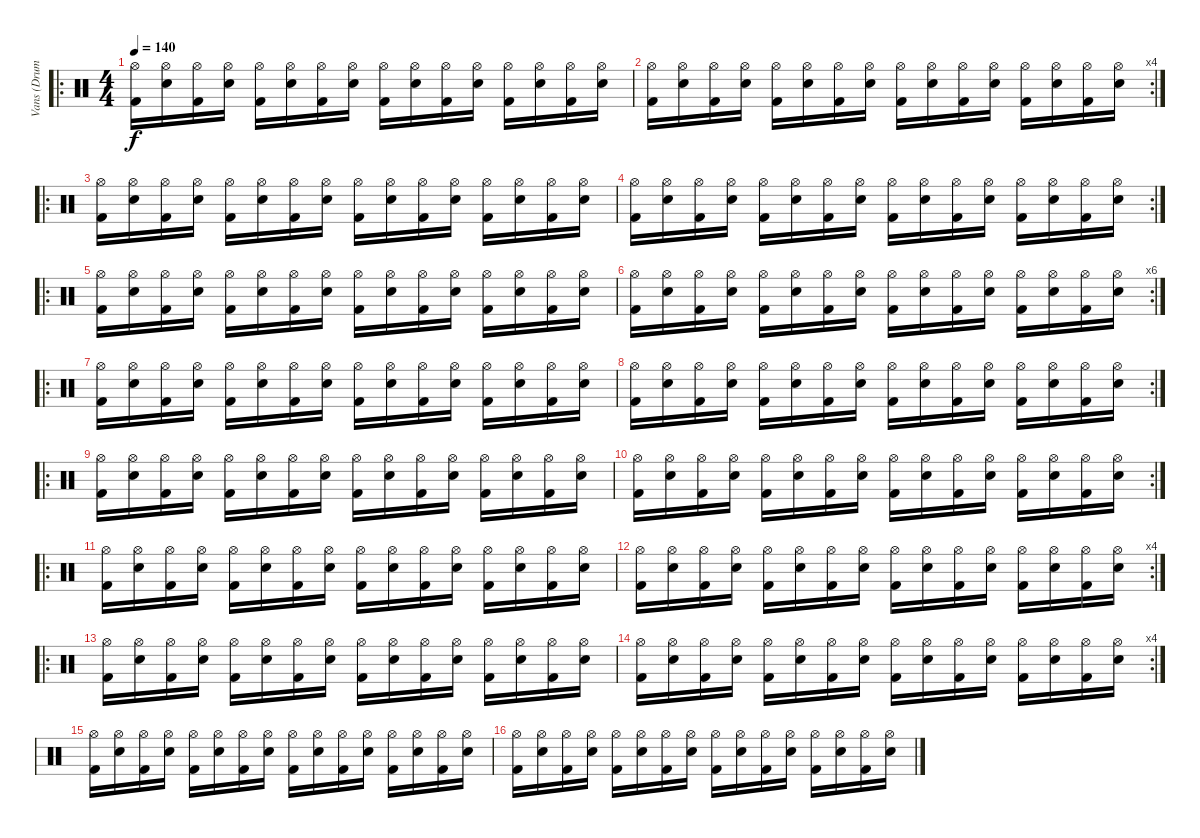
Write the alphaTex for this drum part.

\track ("Vans (Drums)" "Vans (Drum") {instrument percussion}
\staff {score}
\articulation defaults
\ro
\ts (4 4)
\tempo 140
\clef neutral
\ks c
("Hi-Hat (open)" "Kick (hit) 2").16{dy f} ("Hi-Hat (open)" "Snare (hit) 2").16 ("Hi-Hat (open)" "Kick (hit) 2").16 ("Hi-Hat (open)" "Snare (hit) 2").16 ("Hi-Hat (open)" "Kick (hit) 2").16 ("Hi-Hat (open)" "Snare (hit) 2").16 ("Hi-Hat (open)" "Kick (hit) 2").16 ("Hi-Hat (open)" "Snare (hit) 2").16 ("Hi-Hat (open)" "Kick (hit) 2").16 ("Hi-Hat (open)" "Snare (hit) 2").16 ("Hi-Hat (open)" "Kick (hit) 2").16 ("Hi-Hat (open)" "Snare (hit) 2").16 ("Hi-Hat (open)" "Kick (hit) 2").16 ("Hi-Hat (open)" "Snare (hit) 2").16 ("Hi-Hat (open)" "Kick (hit) 2").16 ("Hi-Hat (open)" "Snare (hit) 2").16 |
\rc 4
("Hi-Hat (open)" "Kick (hit) 2").16 ("Hi-Hat (open)" "Snare (hit) 2").16 ("Hi-Hat (open)" "Kick (hit) 2").16 ("Hi-Hat (open)" "Snare (hit) 2").16 ("Hi-Hat (open)" "Kick (hit) 2").16 ("Hi-Hat (open)" "Snare (hit) 2").16 ("Hi-Hat (open)" "Kick (hit) 2").16 ("Hi-Hat (open)" "Snare (hit) 2").16 ("Hi-Hat (open)" "Kick (hit) 2").16 ("Hi-Hat (open)" "Snare (hit) 2").16 ("Hi-Hat (open)" "Kick (hit) 2").16 ("Hi-Hat (open)" "Snare (hit) 2").16 ("Hi-Hat (open)" "Kick (hit) 2").16 ("Hi-Hat (open)" "Snare (hit) 2").16 ("Hi-Hat (open)" "Kick (hit) 2").16 ("Hi-Hat (open)" "Snare (hit) 2").16 |
\ro
("Hi-Hat (open)" "Kick (hit) 2").16 ("Hi-Hat (open)" "Snare (hit) 2").16 ("Hi-Hat (open)" "Kick (hit) 2").16 ("Hi-Hat (open)" "Snare (hit) 2").16 ("Hi-Hat (open)" "Kick (hit) 2").16 ("Hi-Hat (open)" "Snare (hit) 2").16 ("Hi-Hat (open)" "Kick (hit) 2").16 ("Hi-Hat (open)" "Snare (hit) 2").16 ("Hi-Hat (open)" "Kick (hit) 2").16 ("Hi-Hat (open)" "Snare (hit) 2").16 ("Hi-Hat (open)" "Kick (hit) 2").16 ("Hi-Hat (open)" "Snare (hit) 2").16 ("Hi-Hat (open)" "Kick (hit) 2").16 ("Hi-Hat (open)" "Snare (hit) 2").16 ("Hi-Hat (open)" "Kick (hit) 2").16 ("Hi-Hat (open)" "Snare (hit) 2").16 |
\rc 2
("Hi-Hat (open)" "Kick (hit) 2").16 ("Hi-Hat (open)" "Snare (hit) 2").16 ("Hi-Hat (open)" "Kick (hit) 2").16 ("Hi-Hat (open)" "Snare (hit) 2").16 ("Hi-Hat (open)" "Kick (hit) 2").16 ("Hi-Hat (open)" "Snare (hit) 2").16 ("Hi-Hat (open)" "Kick (hit) 2").16 ("Hi-Hat (open)" "Snare (hit) 2").16 ("Hi-Hat (open)" "Kick (hit) 2").16 ("Hi-Hat (open)" "Snare (hit) 2").16 ("Hi-Hat (open)" "Kick (hit) 2").16 ("Hi-Hat (open)" "Snare (hit) 2").16 ("Hi-Hat (open)" "Kick (hit) 2").16 ("Hi-Hat (open)" "Snare (hit) 2").16 ("Hi-Hat (open)" "Kick (hit) 2").16 ("Hi-Hat (open)" "Snare (hit) 2").16 |
\ro
("Hi-Hat (open)" "Kick (hit) 2").16 ("Hi-Hat (open)" "Snare (hit) 2").16 ("Hi-Hat (open)" "Kick (hit) 2").16 ("Hi-Hat (open)" "Snare (hit) 2").16 ("Hi-Hat (open)" "Kick (hit) 2").16 ("Hi-Hat (open)" "Snare (hit) 2").16 ("Hi-Hat (open)" "Kick (hit) 2").16 ("Hi-Hat (open)" "Snare (hit) 2").16 ("Hi-Hat (open)" "Kick (hit) 2").16 ("Hi-Hat (open)" "Snare (hit) 2").16 ("Hi-Hat (open)" "Kick (hit) 2").16 ("Hi-Hat (open)" "Snare (hit) 2").16 ("Hi-Hat (open)" "Kick (hit) 2").16 ("Hi-Hat (open)" "Snare (hit) 2").16 ("Hi-Hat (open)" "Kick (hit) 2").16 ("Hi-Hat (open)" "Snare (hit) 2").16 |
\rc 6
("Hi-Hat (open)" "Kick (hit) 2").16 ("Hi-Hat (open)" "Snare (hit) 2").16 ("Hi-Hat (open)" "Kick (hit) 2").16 ("Hi-Hat (open)" "Snare (hit) 2").16 ("Hi-Hat (open)" "Kick (hit) 2").16 ("Hi-Hat (open)" "Snare (hit) 2").16 ("Hi-Hat (open)" "Kick (hit) 2").16 ("Hi-Hat (open)" "Snare (hit) 2").16 ("Hi-Hat (open)" "Kick (hit) 2").16 ("Hi-Hat (open)" "Snare (hit) 2").16 ("Hi-Hat (open)" "Kick (hit) 2").16 ("Hi-Hat (open)" "Snare (hit) 2").16 ("Hi-Hat (open)" "Kick (hit) 2").16 ("Hi-Hat (open)" "Snare (hit) 2").16 ("Hi-Hat (open)" "Kick (hit) 2").16 ("Hi-Hat (open)" "Snare (hit) 2").16 |
\ro
("Hi-Hat (open)" "Kick (hit) 2").16 ("Hi-Hat (open)" "Snare (hit) 2").16 ("Hi-Hat (open)" "Kick (hit) 2").16 ("Hi-Hat (open)" "Snare (hit) 2").16 ("Hi-Hat (open)" "Kick (hit) 2").16 ("Hi-Hat (open)" "Snare (hit) 2").16 ("Hi-Hat (open)" "Kick (hit) 2").16 ("Hi-Hat (open)" "Snare (hit) 2").16 ("Hi-Hat (open)" "Kick (hit) 2").16 ("Hi-Hat (open)" "Snare (hit) 2").16 ("Hi-Hat (open)" "Kick (hit) 2").16 ("Hi-Hat (open)" "Snare (hit) 2").16 ("Hi-Hat (open)" "Kick (hit) 2").16 ("Hi-Hat (open)" "Snare (hit) 2").16 ("Hi-Hat (open)" "Kick (hit) 2").16 ("Hi-Hat (open)" "Snare (hit) 2").16 |
\rc 2
("Hi-Hat (open)" "Kick (hit) 2").16 ("Hi-Hat (open)" "Snare (hit) 2").16 ("Hi-Hat (open)" "Kick (hit) 2").16 ("Hi-Hat (open)" "Snare (hit) 2").16 ("Hi-Hat (open)" "Kick (hit) 2").16 ("Hi-Hat (open)" "Snare (hit) 2").16 ("Hi-Hat (open)" "Kick (hit) 2").16 ("Hi-Hat (open)" "Snare (hit) 2").16 ("Hi-Hat (open)" "Kick (hit) 2").16 ("Hi-Hat (open)" "Snare (hit) 2").16 ("Hi-Hat (open)" "Kick (hit) 2").16 ("Hi-Hat (open)" "Snare (hit) 2").16 ("Hi-Hat (open)" "Kick (hit) 2").16 ("Hi-Hat (open)" "Snare (hit) 2").16 ("Hi-Hat (open)" "Kick (hit) 2").16 ("Hi-Hat (open)" "Snare (hit) 2").16 |
\ro
("Hi-Hat (open)" "Kick (hit) 2").16 ("Hi-Hat (open)" "Snare (hit) 2").16 ("Hi-Hat (open)" "Kick (hit) 2").16 ("Hi-Hat (open)" "Snare (hit) 2").16 ("Hi-Hat (open)" "Kick (hit) 2").16 ("Hi-Hat (open)" "Snare (hit) 2").16 ("Hi-Hat (open)" "Kick (hit) 2").16 ("Hi-Hat (open)" "Snare (hit) 2").16 ("Hi-Hat (open)" "Kick (hit) 2").16 ("Hi-Hat (open)" "Snare (hit) 2").16 ("Hi-Hat (open)" "Kick (hit) 2").16 ("Hi-Hat (open)" "Snare (hit) 2").16 ("Hi-Hat (open)" "Kick (hit) 2").16 ("Hi-Hat (open)" "Snare (hit) 2").16 ("Hi-Hat (open)" "Kick (hit) 2").16 ("Hi-Hat (open)" "Snare (hit) 2").16 |
\rc 2
("Hi-Hat (open)" "Kick (hit) 2").16 ("Hi-Hat (open)" "Snare (hit) 2").16 ("Hi-Hat (open)" "Kick (hit) 2").16 ("Hi-Hat (open)" "Snare (hit) 2").16 ("Hi-Hat (open)" "Kick (hit) 2").16 ("Hi-Hat (open)" "Snare (hit) 2").16 ("Hi-Hat (open)" "Kick (hit) 2").16 ("Hi-Hat (open)" "Snare (hit) 2").16 ("Hi-Hat (open)" "Kick (hit) 2").16 ("Hi-Hat (open)" "Snare (hit) 2").16 ("Hi-Hat (open)" "Kick (hit) 2").16 ("Hi-Hat (open)" "Snare (hit) 2").16 ("Hi-Hat (open)" "Kick (hit) 2").16 ("Hi-Hat (open)" "Snare (hit) 2").16 ("Hi-Hat (open)" "Kick (hit) 2").16 ("Hi-Hat (open)" "Snare (hit) 2").16 |
\ro
("Hi-Hat (open)" "Kick (hit) 2").16 ("Hi-Hat (open)" "Snare (hit) 2").16 ("Hi-Hat (open)" "Kick (hit) 2").16 ("Hi-Hat (open)" "Snare (hit) 2").16 ("Hi-Hat (open)" "Kick (hit) 2").16 ("Hi-Hat (open)" "Snare (hit) 2").16 ("Hi-Hat (open)" "Kick (hit) 2").16 ("Hi-Hat (open)" "Snare (hit) 2").16 ("Hi-Hat (open)" "Kick (hit) 2").16 ("Hi-Hat (open)" "Snare (hit) 2").16 ("Hi-Hat (open)" "Kick (hit) 2").16 ("Hi-Hat (open)" "Snare (hit) 2").16 ("Hi-Hat (open)" "Kick (hit) 2").16 ("Hi-Hat (open)" "Snare (hit) 2").16 ("Hi-Hat (open)" "Kick (hit) 2").16 ("Hi-Hat (open)" "Snare (hit) 2").16 |
\rc 4
("Hi-Hat (open)" "Kick (hit) 2").16 ("Hi-Hat (open)" "Snare (hit) 2").16 ("Hi-Hat (open)" "Kick (hit) 2").16 ("Hi-Hat (open)" "Snare (hit) 2").16 ("Hi-Hat (open)" "Kick (hit) 2").16 ("Hi-Hat (open)" "Snare (hit) 2").16 ("Hi-Hat (open)" "Kick (hit) 2").16 ("Hi-Hat (open)" "Snare (hit) 2").16 ("Hi-Hat (open)" "Kick (hit) 2").16 ("Hi-Hat (open)" "Snare (hit) 2").16 ("Hi-Hat (open)" "Kick (hit) 2").16 ("Hi-Hat (open)" "Snare (hit) 2").16 ("Hi-Hat (open)" "Kick (hit) 2").16 ("Hi-Hat (open)" "Snare (hit) 2").16 ("Hi-Hat (open)" "Kick (hit) 2").16 ("Hi-Hat (open)" "Snare (hit) 2").16 |
\ro
("Hi-Hat (open)" "Kick (hit) 2").16 ("Hi-Hat (open)" "Snare (hit) 2").16 ("Hi-Hat (open)" "Kick (hit) 2").16 ("Hi-Hat (open)" "Snare (hit) 2").16 ("Hi-Hat (open)" "Kick (hit) 2").16 ("Hi-Hat (open)" "Snare (hit) 2").16 ("Hi-Hat (open)" "Kick (hit) 2").16 ("Hi-Hat (open)" "Snare (hit) 2").16 ("Hi-Hat (open)" "Kick (hit) 2").16 ("Hi-Hat (open)" "Snare (hit) 2").16 ("Hi-Hat (open)" "Kick (hit) 2").16 ("Hi-Hat (open)" "Snare (hit) 2").16 ("Hi-Hat (open)" "Kick (hit) 2").16 ("Hi-Hat (open)" "Snare (hit) 2").16 ("Hi-Hat (open)" "Kick (hit) 2").16 ("Hi-Hat (open)" "Snare (hit) 2").16 |
\rc 4
("Hi-Hat (open)" "Kick (hit) 2").16 ("Hi-Hat (open)" "Snare (hit) 2").16 ("Hi-Hat (open)" "Kick (hit) 2").16 ("Hi-Hat (open)" "Snare (hit) 2").16 ("Hi-Hat (open)" "Kick (hit) 2").16 ("Hi-Hat (open)" "Snare (hit) 2").16 ("Hi-Hat (open)" "Kick (hit) 2").16 ("Hi-Hat (open)" "Snare (hit) 2").16 ("Hi-Hat (open)" "Kick (hit) 2").16 ("Hi-Hat (open)" "Snare (hit) 2").16 ("Hi-Hat (open)" "Kick (hit) 2").16 ("Hi-Hat (open)" "Snare (hit) 2").16 ("Hi-Hat (open)" "Kick (hit) 2").16 ("Hi-Hat (open)" "Snare (hit) 2").16 ("Hi-Hat (open)" "Kick (hit) 2").16 ("Hi-Hat (open)" "Snare (hit) 2").16 |
("Hi-Hat (open)" "Kick (hit) 2").16 ("Hi-Hat (open)" "Snare (hit) 2").16 ("Hi-Hat (open)" "Kick (hit) 2").16 ("Hi-Hat (open)" "Snare (hit) 2").16 ("Hi-Hat (open)" "Kick (hit) 2").16 ("Hi-Hat (open)" "Snare (hit) 2").16 ("Hi-Hat (open)" "Kick (hit) 2").16 ("Hi-Hat (open)" "Snare (hit) 2").16 ("Hi-Hat (open)" "Kick (hit) 2").16 ("Hi-Hat (open)" "Snare (hit) 2").16 ("Hi-Hat (open)" "Kick (hit) 2").16 ("Hi-Hat (open)" "Snare (hit) 2").16 ("Hi-Hat (open)" "Kick (hit) 2").16 ("Hi-Hat (open)" "Snare (hit) 2").16 ("Hi-Hat (open)" "Kick (hit) 2").16 ("Hi-Hat (open)" "Snare (hit) 2").16 |
("Hi-Hat (open)" "Kick (hit) 2").16 ("Hi-Hat (open)" "Snare (hit) 2").16 ("Hi-Hat (open)" "Kick (hit) 2").16 ("Hi-Hat (open)" "Snare (hit) 2").16 ("Hi-Hat (open)" "Kick (hit) 2").16 ("Hi-Hat (open)" "Snare (hit) 2").16 ("Hi-Hat (open)" "Kick (hit) 2").16 ("Hi-Hat (open)" "Snare (hit) 2").16 ("Hi-Hat (open)" "Kick (hit) 2").16 ("Hi-Hat (open)" "Snare (hit) 2").16 ("Hi-Hat (open)" "Kick (hit) 2").16 ("Hi-Hat (open)" "Snare (hit) 2").16 ("Hi-Hat (open)" "Kick (hit) 2").16 ("Hi-Hat (open)" "Snare (hit) 2").16 ("Hi-Hat (open)" "Kick (hit) 2").16 ("Hi-Hat (open)" "Snare (hit) 2").16
